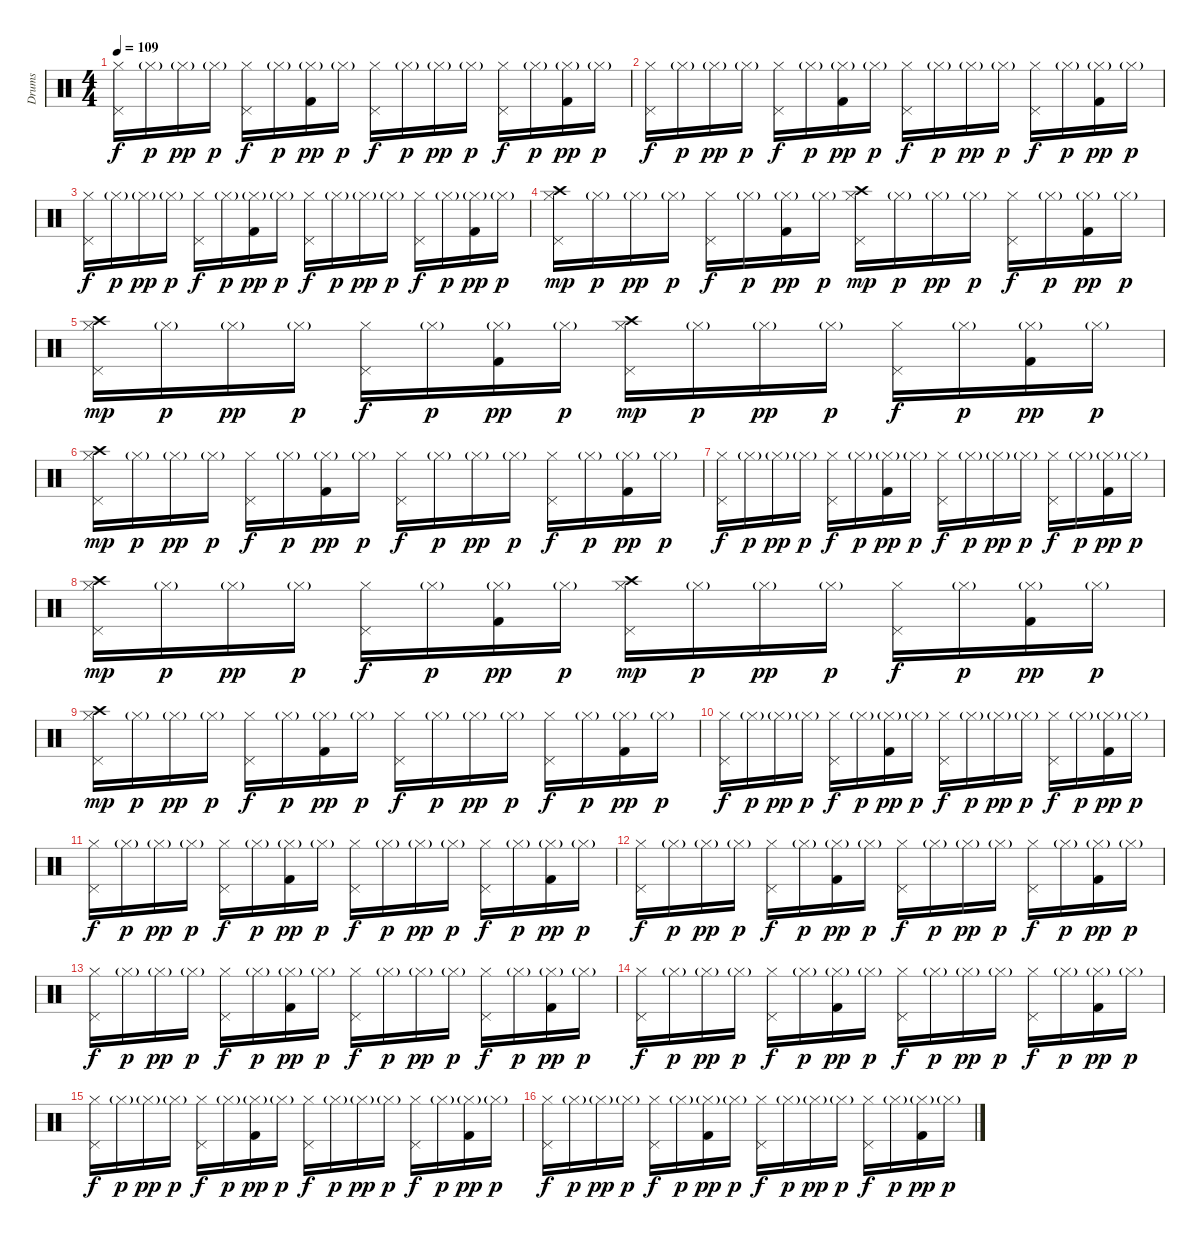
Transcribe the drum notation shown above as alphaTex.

\track ("Drums" "Drums") {instrument percussion}
\staff {score}
\articulation defaults
\ts (4 4)
\tempo 109
\clef neutral
\ks c
("Hi-Hat (closed)" "Pedal Hi-Hat (hit)").16{dy f} "Hi-Hat (closed)"{g}.16{dy p} "Hi-Hat (closed)"{g}.16{dy pp} "Hi-Hat (closed)"{g}.16{dy p} ("Hi-Hat (closed)" "Pedal Hi-Hat (hit)").16{dy f} "Hi-Hat (closed)"{g}.16{dy p} ("Hi-Hat (closed)"{g} "Kick (hit) 2").16{dy pp} "Hi-Hat (closed)"{g}.16{dy p} ("Hi-Hat (closed)" "Pedal Hi-Hat (hit)").16{dy f} "Hi-Hat (closed)"{g}.16{dy p} "Hi-Hat (closed)"{g}.16{dy pp} "Hi-Hat (closed)"{g}.16{dy p} ("Hi-Hat (closed)" "Pedal Hi-Hat (hit)").16{dy f} "Hi-Hat (closed)"{g}.16{dy p} ("Hi-Hat (closed)"{g} "Kick (hit) 2").16{dy pp} "Hi-Hat (closed)"{g}.16{dy p} |
("Hi-Hat (closed)" "Pedal Hi-Hat (hit)").16{dy f} "Hi-Hat (closed)"{g}.16{dy p} "Hi-Hat (closed)"{g}.16{dy pp} "Hi-Hat (closed)"{g}.16{dy p} ("Hi-Hat (closed)" "Pedal Hi-Hat (hit)").16{dy f} "Hi-Hat (closed)"{g}.16{dy p} ("Hi-Hat (closed)"{g} "Kick (hit) 2").16{dy pp} "Hi-Hat (closed)"{g}.16{dy p} ("Hi-Hat (closed)" "Pedal Hi-Hat (hit)").16{dy f} "Hi-Hat (closed)"{g}.16{dy p} "Hi-Hat (closed)"{g}.16{dy pp} "Hi-Hat (closed)"{g}.16{dy p} ("Hi-Hat (closed)" "Pedal Hi-Hat (hit)").16{dy f} "Hi-Hat (closed)"{g}.16{dy p} ("Hi-Hat (closed)"{g} "Kick (hit) 2").16{dy pp} "Hi-Hat (closed)"{g}.16{dy p} |
("Hi-Hat (closed)" "Pedal Hi-Hat (hit)").16{dy f} "Hi-Hat (closed)"{g}.16{dy p} "Hi-Hat (closed)"{g}.16{dy pp} "Hi-Hat (closed)"{g}.16{dy p} ("Hi-Hat (closed)" "Pedal Hi-Hat (hit)").16{dy f} "Hi-Hat (closed)"{g}.16{dy p} ("Hi-Hat (closed)"{g} "Kick (hit) 2").16{dy pp} "Hi-Hat (closed)"{g}.16{dy p} ("Hi-Hat (closed)" "Pedal Hi-Hat (hit)").16{dy f} "Hi-Hat (closed)"{g}.16{dy p} "Hi-Hat (closed)"{g}.16{dy pp} "Hi-Hat (closed)"{g}.16{dy p} ("Hi-Hat (closed)" "Pedal Hi-Hat (hit)").16{dy f} "Hi-Hat (closed)"{g}.16{dy p} ("Hi-Hat (closed)"{g} "Kick (hit) 2").16{dy pp} "Hi-Hat (closed)"{g}.16{dy p} |
("Hi-Hat (closed)" "Pedal Hi-Hat (hit)" "Crash high (hit)").16{dy mp} "Hi-Hat (closed)"{g}.16{dy p} "Hi-Hat (closed)"{g}.16{dy pp} "Hi-Hat (closed)"{g}.16{dy p} ("Hi-Hat (closed)" "Pedal Hi-Hat (hit)").16{dy f} "Hi-Hat (closed)"{g}.16{dy p} ("Hi-Hat (closed)"{g} "Kick (hit) 2").16{dy pp} "Hi-Hat (closed)"{g}.16{dy p} ("Hi-Hat (closed)" "Pedal Hi-Hat (hit)" "Crash high (hit)").16{dy mp} "Hi-Hat (closed)"{g}.16{dy p} "Hi-Hat (closed)"{g}.16{dy pp} "Hi-Hat (closed)"{g}.16{dy p} ("Hi-Hat (closed)" "Pedal Hi-Hat (hit)").16{dy f} "Hi-Hat (closed)"{g}.16{dy p} ("Hi-Hat (closed)"{g} "Kick (hit) 2").16{dy pp} "Hi-Hat (closed)"{g}.16{dy p} |
("Hi-Hat (closed)" "Pedal Hi-Hat (hit)" "Crash high (hit)").16{dy mp} "Hi-Hat (closed)"{g}.16{dy p} "Hi-Hat (closed)"{g}.16{dy pp} "Hi-Hat (closed)"{g}.16{dy p} ("Hi-Hat (closed)" "Pedal Hi-Hat (hit)").16{dy f} "Hi-Hat (closed)"{g}.16{dy p} ("Hi-Hat (closed)"{g} "Kick (hit) 2").16{dy pp} "Hi-Hat (closed)"{g}.16{dy p} ("Hi-Hat (closed)" "Pedal Hi-Hat (hit)" "Crash high (hit)").16{dy mp} "Hi-Hat (closed)"{g}.16{dy p} "Hi-Hat (closed)"{g}.16{dy pp} "Hi-Hat (closed)"{g}.16{dy p} ("Hi-Hat (closed)" "Pedal Hi-Hat (hit)").16{dy f} "Hi-Hat (closed)"{g}.16{dy p} ("Hi-Hat (closed)"{g} "Kick (hit) 2").16{dy pp} "Hi-Hat (closed)"{g}.16{dy p} |
("Hi-Hat (closed)" "Pedal Hi-Hat (hit)" "Crash high (hit)").16{dy mp} "Hi-Hat (closed)"{g}.16{dy p} "Hi-Hat (closed)"{g}.16{dy pp} "Hi-Hat (closed)"{g}.16{dy p} ("Hi-Hat (closed)" "Pedal Hi-Hat (hit)").16{dy f} "Hi-Hat (closed)"{g}.16{dy p} ("Hi-Hat (closed)"{g} "Kick (hit) 2").16{dy pp} "Hi-Hat (closed)"{g}.16{dy p} ("Hi-Hat (closed)" "Pedal Hi-Hat (hit)").16{dy f} "Hi-Hat (closed)"{g}.16{dy p} "Hi-Hat (closed)"{g}.16{dy pp} "Hi-Hat (closed)"{g}.16{dy p} ("Hi-Hat (closed)" "Pedal Hi-Hat (hit)").16{dy f} "Hi-Hat (closed)"{g}.16{dy p} ("Hi-Hat (closed)"{g} "Kick (hit) 2").16{dy pp} "Hi-Hat (closed)"{g}.16{dy p} |
("Hi-Hat (closed)" "Pedal Hi-Hat (hit)").16{dy f} "Hi-Hat (closed)"{g}.16{dy p} "Hi-Hat (closed)"{g}.16{dy pp} "Hi-Hat (closed)"{g}.16{dy p} ("Hi-Hat (closed)" "Pedal Hi-Hat (hit)").16{dy f} "Hi-Hat (closed)"{g}.16{dy p} ("Hi-Hat (closed)"{g} "Kick (hit) 2").16{dy pp} "Hi-Hat (closed)"{g}.16{dy p} ("Hi-Hat (closed)" "Pedal Hi-Hat (hit)").16{dy f} "Hi-Hat (closed)"{g}.16{dy p} "Hi-Hat (closed)"{g}.16{dy pp} "Hi-Hat (closed)"{g}.16{dy p} ("Hi-Hat (closed)" "Pedal Hi-Hat (hit)").16{dy f} "Hi-Hat (closed)"{g}.16{dy p} ("Hi-Hat (closed)"{g} "Kick (hit) 2").16{dy pp} "Hi-Hat (closed)"{g}.16{dy p} |
("Hi-Hat (closed)" "Pedal Hi-Hat (hit)" "Crash high (hit)").16{dy mp} "Hi-Hat (closed)"{g}.16{dy p} "Hi-Hat (closed)"{g}.16{dy pp} "Hi-Hat (closed)"{g}.16{dy p} ("Hi-Hat (closed)" "Pedal Hi-Hat (hit)").16{dy f} "Hi-Hat (closed)"{g}.16{dy p} ("Hi-Hat (closed)"{g} "Kick (hit) 2").16{dy pp} "Hi-Hat (closed)"{g}.16{dy p} ("Hi-Hat (closed)" "Pedal Hi-Hat (hit)" "Crash high (hit)").16{dy mp} "Hi-Hat (closed)"{g}.16{dy p} "Hi-Hat (closed)"{g}.16{dy pp} "Hi-Hat (closed)"{g}.16{dy p} ("Hi-Hat (closed)" "Pedal Hi-Hat (hit)").16{dy f} "Hi-Hat (closed)"{g}.16{dy p} ("Hi-Hat (closed)"{g} "Kick (hit) 2").16{dy pp} "Hi-Hat (closed)"{g}.16{dy p} |
("Hi-Hat (closed)" "Pedal Hi-Hat (hit)" "Crash high (hit)").16{dy mp} "Hi-Hat (closed)"{g}.16{dy p} "Hi-Hat (closed)"{g}.16{dy pp} "Hi-Hat (closed)"{g}.16{dy p} ("Hi-Hat (closed)" "Pedal Hi-Hat (hit)").16{dy f} "Hi-Hat (closed)"{g}.16{dy p} ("Hi-Hat (closed)"{g} "Kick (hit) 2").16{dy pp} "Hi-Hat (closed)"{g}.16{dy p} ("Hi-Hat (closed)" "Pedal Hi-Hat (hit)").16{dy f} "Hi-Hat (closed)"{g}.16{dy p} "Hi-Hat (closed)"{g}.16{dy pp} "Hi-Hat (closed)"{g}.16{dy p} ("Hi-Hat (closed)" "Pedal Hi-Hat (hit)").16{dy f} "Hi-Hat (closed)"{g}.16{dy p} ("Hi-Hat (closed)"{g} "Kick (hit) 2").16{dy pp} "Hi-Hat (closed)"{g}.16{dy p} |
("Hi-Hat (closed)" "Pedal Hi-Hat (hit)").16{dy f} "Hi-Hat (closed)"{g}.16{dy p} "Hi-Hat (closed)"{g}.16{dy pp} "Hi-Hat (closed)"{g}.16{dy p} ("Hi-Hat (closed)" "Pedal Hi-Hat (hit)").16{dy f} "Hi-Hat (closed)"{g}.16{dy p} ("Hi-Hat (closed)"{g} "Kick (hit) 2").16{dy pp} "Hi-Hat (closed)"{g}.16{dy p} ("Hi-Hat (closed)" "Pedal Hi-Hat (hit)").16{dy f} "Hi-Hat (closed)"{g}.16{dy p} "Hi-Hat (closed)"{g}.16{dy pp} "Hi-Hat (closed)"{g}.16{dy p} ("Hi-Hat (closed)" "Pedal Hi-Hat (hit)").16{dy f} "Hi-Hat (closed)"{g}.16{dy p} ("Hi-Hat (closed)"{g} "Kick (hit) 2").16{dy pp} "Hi-Hat (closed)"{g}.16{dy p} |
("Hi-Hat (closed)" "Pedal Hi-Hat (hit)").16{dy f} "Hi-Hat (closed)"{g}.16{dy p} "Hi-Hat (closed)"{g}.16{dy pp} "Hi-Hat (closed)"{g}.16{dy p} ("Hi-Hat (closed)" "Pedal Hi-Hat (hit)").16{dy f} "Hi-Hat (closed)"{g}.16{dy p} ("Hi-Hat (closed)"{g} "Kick (hit) 2").16{dy pp} "Hi-Hat (closed)"{g}.16{dy p} ("Hi-Hat (closed)" "Pedal Hi-Hat (hit)").16{dy f} "Hi-Hat (closed)"{g}.16{dy p} "Hi-Hat (closed)"{g}.16{dy pp} "Hi-Hat (closed)"{g}.16{dy p} ("Hi-Hat (closed)" "Pedal Hi-Hat (hit)").16{dy f} "Hi-Hat (closed)"{g}.16{dy p} ("Hi-Hat (closed)"{g} "Kick (hit) 2").16{dy pp} "Hi-Hat (closed)"{g}.16{dy p} |
("Hi-Hat (closed)" "Pedal Hi-Hat (hit)").16{dy f} "Hi-Hat (closed)"{g}.16{dy p} "Hi-Hat (closed)"{g}.16{dy pp} "Hi-Hat (closed)"{g}.16{dy p} ("Hi-Hat (closed)" "Pedal Hi-Hat (hit)").16{dy f} "Hi-Hat (closed)"{g}.16{dy p} ("Hi-Hat (closed)"{g} "Kick (hit) 2").16{dy pp} "Hi-Hat (closed)"{g}.16{dy p} ("Hi-Hat (closed)" "Pedal Hi-Hat (hit)").16{dy f} "Hi-Hat (closed)"{g}.16{dy p} "Hi-Hat (closed)"{g}.16{dy pp} "Hi-Hat (closed)"{g}.16{dy p} ("Hi-Hat (closed)" "Pedal Hi-Hat (hit)").16{dy f} "Hi-Hat (closed)"{g}.16{dy p} ("Hi-Hat (closed)"{g} "Kick (hit) 2").16{dy pp} "Hi-Hat (closed)"{g}.16{dy p} |
("Hi-Hat (closed)" "Pedal Hi-Hat (hit)").16{dy f} "Hi-Hat (closed)"{g}.16{dy p} "Hi-Hat (closed)"{g}.16{dy pp} "Hi-Hat (closed)"{g}.16{dy p} ("Hi-Hat (closed)" "Pedal Hi-Hat (hit)").16{dy f} "Hi-Hat (closed)"{g}.16{dy p} ("Hi-Hat (closed)"{g} "Kick (hit) 2").16{dy pp} "Hi-Hat (closed)"{g}.16{dy p} ("Hi-Hat (closed)" "Pedal Hi-Hat (hit)").16{dy f} "Hi-Hat (closed)"{g}.16{dy p} "Hi-Hat (closed)"{g}.16{dy pp} "Hi-Hat (closed)"{g}.16{dy p} ("Hi-Hat (closed)" "Pedal Hi-Hat (hit)").16{dy f} "Hi-Hat (closed)"{g}.16{dy p} ("Hi-Hat (closed)"{g} "Kick (hit) 2").16{dy pp} "Hi-Hat (closed)"{g}.16{dy p} |
("Hi-Hat (closed)" "Pedal Hi-Hat (hit)").16{dy f} "Hi-Hat (closed)"{g}.16{dy p} "Hi-Hat (closed)"{g}.16{dy pp} "Hi-Hat (closed)"{g}.16{dy p} ("Hi-Hat (closed)" "Pedal Hi-Hat (hit)").16{dy f} "Hi-Hat (closed)"{g}.16{dy p} ("Hi-Hat (closed)"{g} "Kick (hit) 2").16{dy pp} "Hi-Hat (closed)"{g}.16{dy p} ("Hi-Hat (closed)" "Pedal Hi-Hat (hit)").16{dy f} "Hi-Hat (closed)"{g}.16{dy p} "Hi-Hat (closed)"{g}.16{dy pp} "Hi-Hat (closed)"{g}.16{dy p} ("Hi-Hat (closed)" "Pedal Hi-Hat (hit)").16{dy f} "Hi-Hat (closed)"{g}.16{dy p} ("Hi-Hat (closed)"{g} "Kick (hit) 2").16{dy pp} "Hi-Hat (closed)"{g}.16{dy p} |
("Hi-Hat (closed)" "Pedal Hi-Hat (hit)").16{dy f} "Hi-Hat (closed)"{g}.16{dy p} "Hi-Hat (closed)"{g}.16{dy pp} "Hi-Hat (closed)"{g}.16{dy p} ("Hi-Hat (closed)" "Pedal Hi-Hat (hit)").16{dy f} "Hi-Hat (closed)"{g}.16{dy p} ("Hi-Hat (closed)"{g} "Kick (hit) 2").16{dy pp} "Hi-Hat (closed)"{g}.16{dy p} ("Hi-Hat (closed)" "Pedal Hi-Hat (hit)").16{dy f} "Hi-Hat (closed)"{g}.16{dy p} "Hi-Hat (closed)"{g}.16{dy pp} "Hi-Hat (closed)"{g}.16{dy p} ("Hi-Hat (closed)" "Pedal Hi-Hat (hit)").16{dy f} "Hi-Hat (closed)"{g}.16{dy p} ("Hi-Hat (closed)"{g} "Kick (hit) 2").16{dy pp} "Hi-Hat (closed)"{g}.16{dy p} |
("Hi-Hat (closed)" "Pedal Hi-Hat (hit)").16{dy f} "Hi-Hat (closed)"{g}.16{dy p} "Hi-Hat (closed)"{g}.16{dy pp} "Hi-Hat (closed)"{g}.16{dy p} ("Hi-Hat (closed)" "Pedal Hi-Hat (hit)").16{dy f} "Hi-Hat (closed)"{g}.16{dy p} ("Hi-Hat (closed)"{g} "Kick (hit) 2").16{dy pp} "Hi-Hat (closed)"{g}.16{dy p} ("Hi-Hat (closed)" "Pedal Hi-Hat (hit)").16{dy f} "Hi-Hat (closed)"{g}.16{dy p} "Hi-Hat (closed)"{g}.16{dy pp} "Hi-Hat (closed)"{g}.16{dy p} ("Hi-Hat (closed)" "Pedal Hi-Hat (hit)").16{dy f} "Hi-Hat (closed)"{g}.16{dy p} ("Hi-Hat (closed)"{g} "Kick (hit) 2").16{dy pp} "Hi-Hat (closed)"{g}.16{dy p}
